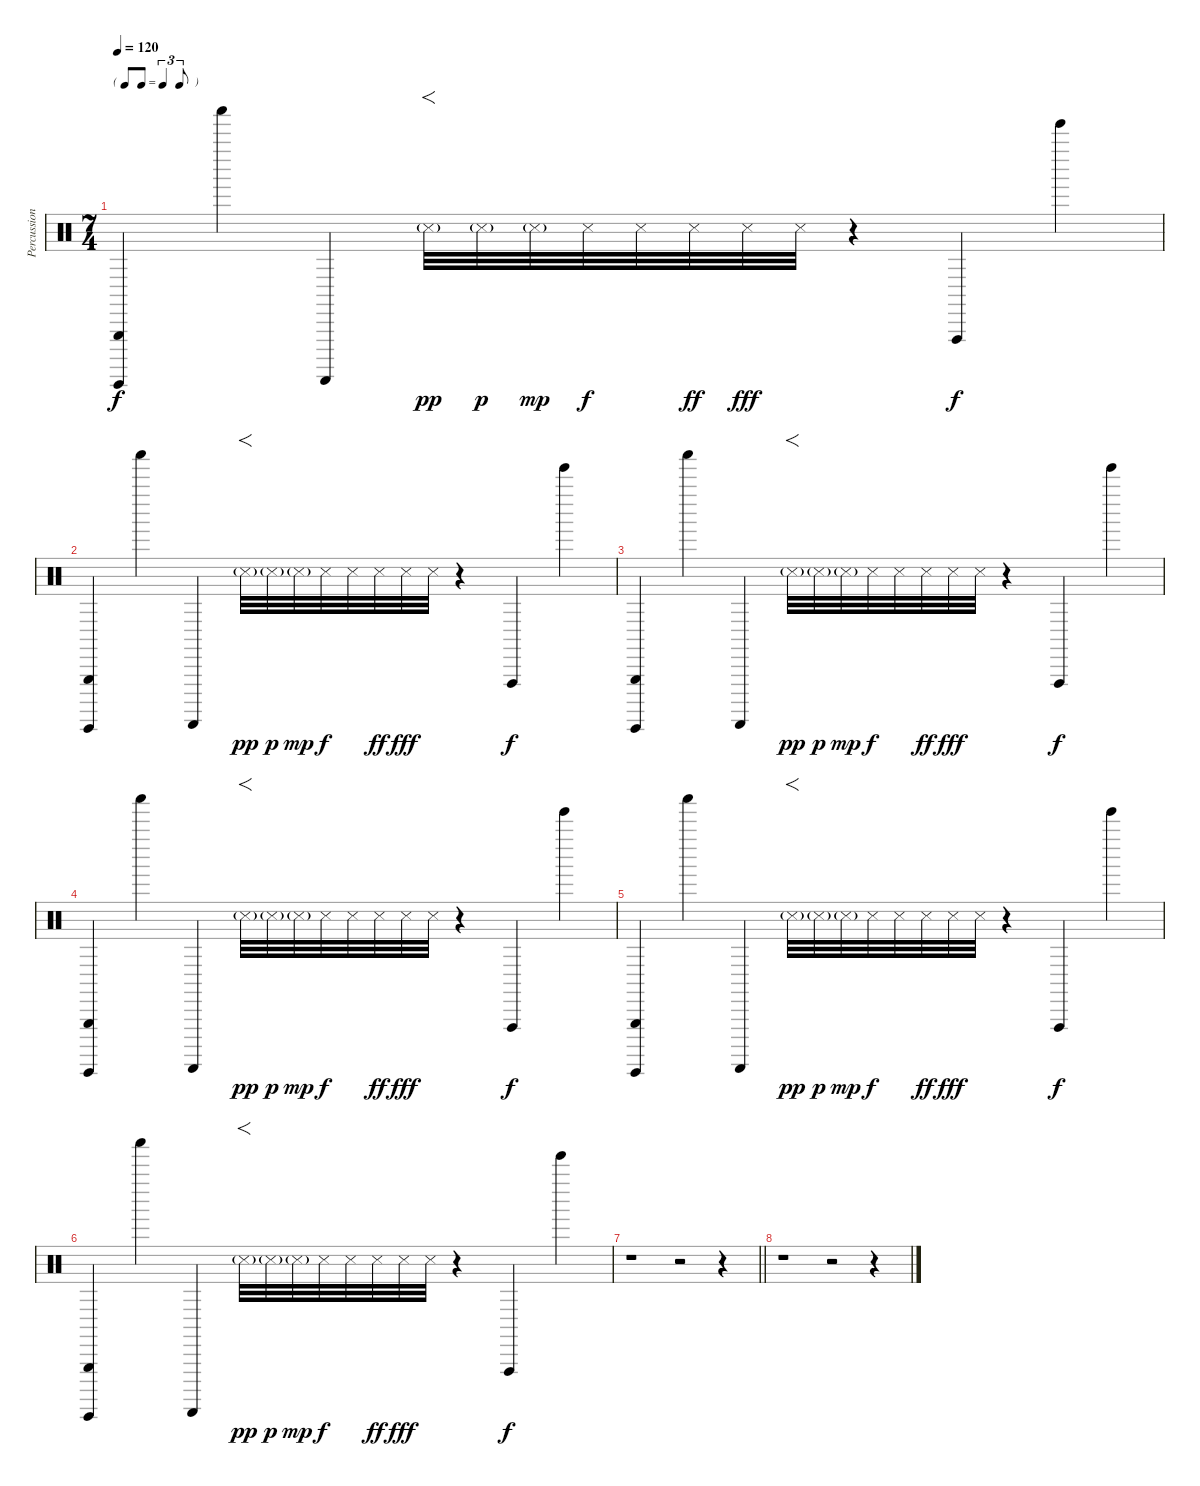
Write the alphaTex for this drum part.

\track ("Percussion" "Percussion") {instrument percussion}
\staff {score}
\articulation defaults
\ts (7 4)
\tf triplet8th
\tempo 120
\clef neutral
\ks c
("Triangle (hit)" "Guiro (hit)").4{dy f} "Shaker (hit)".4 "Guiro (scrap-return)".4 "Snare (side stick) 3"{g}.32{f dy pp} "Snare (side stick) 3"{g}.32{dy p} "Snare (side stick) 3"{g}.32{dy mp} "Snare (side stick) 3".32{dy f} "Snare (side stick) 3".32 "Snare (side stick) 3".32{dy ff} "Snare (side stick) 3".32{dy fff} "Snare (side stick) 3".32 r.4 "Vibraslap (hit)".4{dy f} "Tinkle Bell (hit)".4 |
("Triangle (hit)" "Guiro (hit)").4 "Shaker (hit)".4 "Guiro (scrap-return)".4 "Snare (side stick) 3"{g}.32{f dy pp} "Snare (side stick) 3"{g}.32{dy p} "Snare (side stick) 3"{g}.32{dy mp} "Snare (side stick) 3".32{dy f} "Snare (side stick) 3".32 "Snare (side stick) 3".32{dy ff} "Snare (side stick) 3".32{dy fff} "Snare (side stick) 3".32 r.4 "Vibraslap (hit)".4{dy f} "Tinkle Bell (hit)".4 |
("Triangle (hit)" "Guiro (hit)").4 "Shaker (hit)".4 "Guiro (scrap-return)".4 "Snare (side stick) 3"{g}.32{f dy pp} "Snare (side stick) 3"{g}.32{dy p} "Snare (side stick) 3"{g}.32{dy mp} "Snare (side stick) 3".32{dy f} "Snare (side stick) 3".32 "Snare (side stick) 3".32{dy ff} "Snare (side stick) 3".32{dy fff} "Snare (side stick) 3".32 r.4 "Vibraslap (hit)".4{dy f} "Tinkle Bell (hit)".4 |
("Triangle (hit)" "Guiro (hit)").4 "Shaker (hit)".4 "Guiro (scrap-return)".4 "Snare (side stick) 3"{g}.32{f dy pp} "Snare (side stick) 3"{g}.32{dy p} "Snare (side stick) 3"{g}.32{dy mp} "Snare (side stick) 3".32{dy f} "Snare (side stick) 3".32 "Snare (side stick) 3".32{dy ff} "Snare (side stick) 3".32{dy fff} "Snare (side stick) 3".32 r.4 "Vibraslap (hit)".4{dy f} "Tinkle Bell (hit)".4 |
("Triangle (hit)" "Guiro (hit)").4 "Shaker (hit)".4 "Guiro (scrap-return)".4 "Snare (side stick) 3"{g}.32{f dy pp} "Snare (side stick) 3"{g}.32{dy p} "Snare (side stick) 3"{g}.32{dy mp} "Snare (side stick) 3".32{dy f} "Snare (side stick) 3".32 "Snare (side stick) 3".32{dy ff} "Snare (side stick) 3".32{dy fff} "Snare (side stick) 3".32 r.4 "Vibraslap (hit)".4{dy f} "Tinkle Bell (hit)".4 |
("Triangle (hit)" "Guiro (hit)").4 "Shaker (hit)".4 "Guiro (scrap-return)".4 "Snare (side stick) 3"{g}.32{f dy pp} "Snare (side stick) 3"{g}.32{dy p} "Snare (side stick) 3"{g}.32{dy mp} "Snare (side stick) 3".32{dy f} "Snare (side stick) 3".32 "Snare (side stick) 3".32{dy ff} "Snare (side stick) 3".32{dy fff} "Snare (side stick) 3".32 r.4 "Vibraslap (hit)".4{dy f} "Tinkle Bell (hit)".4 |
\barLineRight lightlight
r.1 r.2 r.4 |
r.1 r.2 r.4
